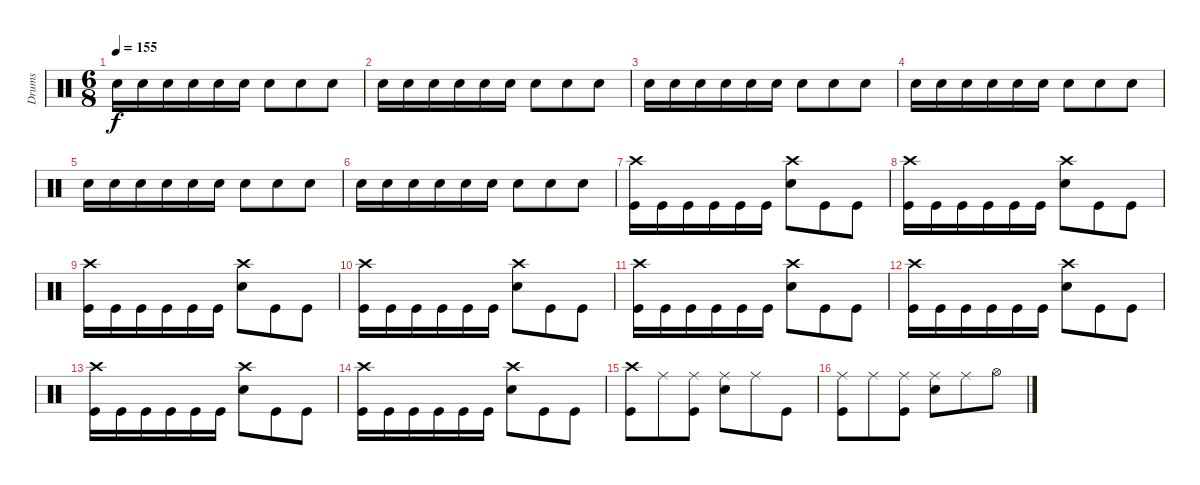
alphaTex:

\track ("Drums" "Drums") {instrument percussion}
\staff {score}
\articulation defaults
\ts (6 8)
\tempo 155
\clef neutral
\ks c "Snare (hit) 2".16{dy f} "Snare (hit) 2".16 "Snare (hit) 2".16 "Snare (hit) 2".16 "Snare (hit) 2".16 "Snare (hit) 2".16 "Snare (hit) 2".8 "Snare (hit) 2".8 "Snare (hit) 2".8
|
"Snare (hit) 2".16 "Snare (hit) 2".16 "Snare (hit) 2".16 "Snare (hit) 2".16 "Snare (hit) 2".16 "Snare (hit) 2".16 "Snare (hit) 2".8 "Snare (hit) 2".8 "Snare (hit) 2".8 |
"Snare (hit) 2".16 "Snare (hit) 2".16 "Snare (hit) 2".16 "Snare (hit) 2".16 "Snare (hit) 2".16 "Snare (hit) 2".16 "Snare (hit) 2".8 "Snare (hit) 2".8 "Snare (hit) 2".8 |
"Snare (hit) 2".16 "Snare (hit) 2".16 "Snare (hit) 2".16 "Snare (hit) 2".16 "Snare (hit) 2".16 "Snare (hit) 2".16 "Snare (hit) 2".8 "Snare (hit) 2".8 "Snare (hit) 2".8 |
"Snare (hit) 2".16 "Snare (hit) 2".16 "Snare (hit) 2".16 "Snare (hit) 2".16 "Snare (hit) 2".16 "Snare (hit) 2".16 "Snare (hit) 2".8 "Snare (hit) 2".8 "Snare (hit) 2".8 |
"Snare (hit) 2".16 "Snare (hit) 2".16 "Snare (hit) 2".16 "Snare (hit) 2".16 "Snare (hit) 2".16 "Snare (hit) 2".16 "Snare (hit) 2".8 "Snare (hit) 2".8 "Snare (hit) 2".8 |
("Kick (hit)" "Crash high (hit)").16{volume 13} "Kick (hit)".16 "Kick (hit)".16 "Kick (hit)".16 "Kick (hit)".16 "Kick (hit)".16 ("Snare (hit) 2" "Crash high (hit)").8 "Kick (hit)".8 "Kick (hit)".8 |
("Kick (hit)" "Crash high (hit)").16 "Kick (hit)".16 "Kick (hit)".16 "Kick (hit)".16 "Kick (hit)".16 "Kick (hit)".16 ("Snare (hit) 2" "Crash high (hit)").8 "Kick (hit)".8 "Kick (hit)".8 |
("Kick (hit)" "Crash high (hit)").16 "Kick (hit)".16 "Kick (hit)".16 "Kick (hit)".16 "Kick (hit)".16 "Kick (hit)".16 ("Snare (hit) 2" "Crash high (hit)").8 "Kick (hit)".8 "Kick (hit)".8 |
("Kick (hit)" "Crash high (hit)").16 "Kick (hit)".16 "Kick (hit)".16 "Kick (hit)".16 "Kick (hit)".16 "Kick (hit)".16 ("Snare (hit) 2" "Crash high (hit)").8 "Kick (hit)".8 "Kick (hit)".8 |
("Kick (hit)" "Crash high (hit)").16 "Kick (hit)".16 "Kick (hit)".16 "Kick (hit)".16 "Kick (hit)".16 "Kick (hit)".16 ("Snare (hit) 2" "Crash high (hit)").8 "Kick (hit)".8 "Kick (hit)".8 |
("Kick (hit)" "Crash high (hit)").16 "Kick (hit)".16 "Kick (hit)".16 "Kick (hit)".16 "Kick (hit)".16 "Kick (hit)".16 ("Snare (hit) 2" "Crash high (hit)").8 "Kick (hit)".8 "Kick (hit)".8 |
("Kick (hit)" "Crash high (hit)").16 "Kick (hit)".16 "Kick (hit)".16 "Kick (hit)".16 "Kick (hit)".16 "Kick (hit)".16 ("Snare (hit) 2" "Crash high (hit)").8 "Kick (hit)".8 "Kick (hit)".8 |
("Kick (hit)" "Crash high (hit)").16 "Kick (hit)".16 "Kick (hit)".16 "Kick (hit)".16 "Kick (hit)".16 "Kick (hit)".16 ("Snare (hit) 2" "Crash high (hit)").8 "Kick (hit)".8 "Kick (hit)".8 |
("Kick (hit)" "Crash high (hit)").8 "Ride (middle)".8 ("Kick (hit)" "Ride (middle)").8 ("Snare (hit) 2" "Ride (middle)").8 "Ride (middle)".8 "Kick (hit)".8 |
("Kick (hit)" "Ride (middle)").8 "Ride (middle)".8 ("Kick (hit)" "Ride (middle)").8 ("Snare (hit) 2" "Ride (middle)").8 "Ride (middle)".8 "Hi-Hat (open)".8
